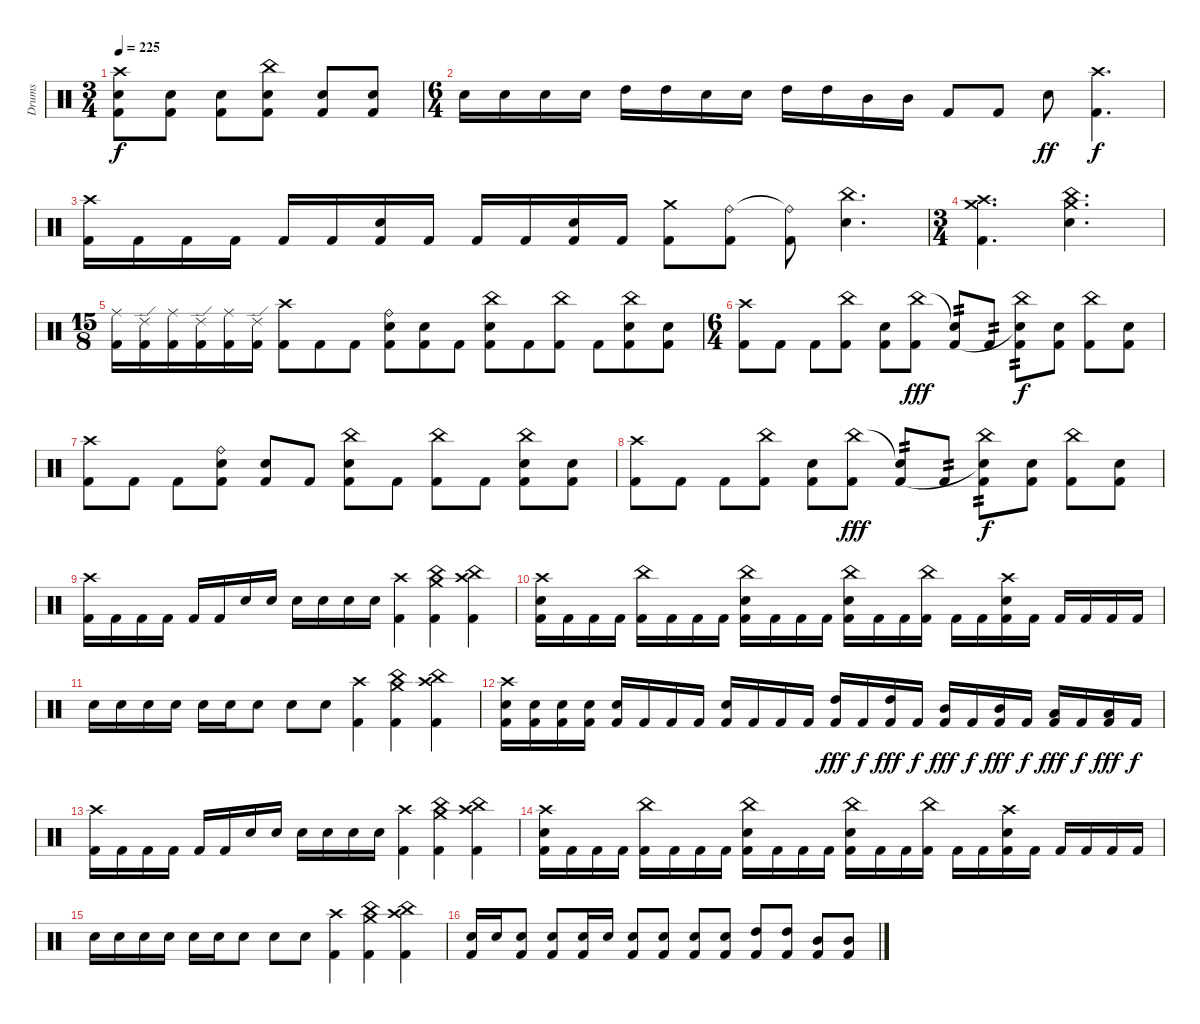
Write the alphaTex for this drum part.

\track ("Drums" "Drums") {instrument percussion}
\staff {score}
\articulation defaults
\ts (3 4)
\tempo 225
\clef neutral
\ks c
("Crash high (hit)" "Snare (hit) 2" "Kick (hit) 2").8{dy f} ("Snare (hit) 2" "Kick (hit) 2").8 ("Snare (hit) 2" "Kick (hit) 2").8 ("China (hit)" "Snare (hit) 2" "Kick (hit) 2").8 ("Snare (hit) 2" "Kick (hit) 2").8 ("Snare (hit) 2" "Kick (hit) 2").8 |
\ts (6 4)
"Snare (hit) 2".16 "Snare (hit) 2".16 "Snare (hit) 2".16 "Snare (hit) 2".16 "High Tom (hit)".16 "High Tom (hit)".16 "Snare (hit) 2".16 "Snare (hit) 2".16 "High Tom (hit)".16 "High Tom (hit)".16 "Mid Tom (hit)".16 "Mid Tom (hit)".16 "Kick (hit) 2".8 "Kick (hit) 2".8 "Snare (hit) 2".8{dy ff} ("Crash high (hit)" "Kick (hit) 2").4{d dy f} |
("Crash high (hit)" "Kick (hit) 2").16 "Kick (hit) 2".16 "Kick (hit) 2".16 "Kick (hit) 2".16 "Kick (hit) 2".16 "Kick (hit) 2".16 ("Snare (hit) 2" "Kick (hit) 2").16 "Kick (hit) 2".16 "Kick (hit) 2".16 "Kick (hit) 2".16 ("Snare (hit) 2" "Kick (hit) 2").16 "Kick (hit) 2".16 ("Crash medium (hit)" "Kick (hit) 2").8 ("Ride (bell)" "Kick (hit) 2").8 ("Ride (bell)"{t} "Kick (hit) 2").8 ("China (hit)" "Snare (hit) 2").4{d} |
\ts (3 4)
("Crash medium (hit)" "Crash high (hit)" "Kick (hit) 2").4{d} ("China (hit)" "Crash medium (hit)" "Snare (hit) 2").4{d} |
\ts (15 8)
("Ride (middle)" "Kick (hit) 2").16 ("Ride (edge) 2" "Kick (hit) 2").16 ("Ride (middle)" "Kick (hit) 2").16 ("Ride (edge) 2" "Kick (hit) 2").16 ("Ride (middle)" "Kick (hit) 2").16 ("Ride (edge) 2" "Kick (hit) 2").16 ("Crash high (hit)" "Kick (hit) 2").8 "Kick (hit) 2".8 "Kick (hit) 2".8 ("Ride (bell)" "Snare (hit)" "Kick (hit) 2").8 ("Snare (hit) 2" "Kick (hit) 2").8 "Kick (hit) 2".8 ("China (hit)" "Snare (hit) 2" "Kick (hit) 2").8 "Kick (hit) 2".8 ("China (hit)" "Kick (hit) 2").8 "Kick (hit) 2".8 ("China (hit)" "Snare (hit) 2" "Kick (hit) 2").8 ("Snare (hit) 2" "Kick (hit) 2").8 |
\ts (6 4)
("Crash high (hit)" "Kick (hit) 2").8 "Kick (hit) 2".8 "Kick (hit) 2".8 ("China (hit)" "Kick (hit) 2").8 ("Snare (hit) 2" "Kick (hit) 2").8 ("China (hit)" "Kick (hit) 2").8{dy fff} ("Snare (hit) 2"{t} "Kick (hit) 2").8{tp 2} "Kick (hit) 2".8{tp 2} ("China (hit)" "Snare (hit) 2"{t} "Kick (hit) 2").8{tp 2 dy f} ("Snare (hit) 2" "Kick (hit) 2").8 ("China (hit)" "Kick (hit) 2").8 ("Snare (hit) 2" "Kick (hit) 2").8 |
("Crash high (hit)" "Kick (hit) 2").8 "Kick (hit) 2".8 "Kick (hit) 2".8 ("Ride (bell)" "Snare (hit)" "Kick (hit) 2").8 ("Snare (hit) 2" "Kick (hit) 2").8 "Kick (hit) 2".8 ("China (hit)" "Snare (hit) 2" "Kick (hit) 2").8 "Kick (hit) 2".8 ("China (hit)" "Kick (hit) 2").8 "Kick (hit) 2".8 ("China (hit)" "Snare (hit) 2" "Kick (hit) 2").8 ("Snare (hit) 2" "Kick (hit) 2").8 |
("Crash high (hit)" "Kick (hit) 2").8 "Kick (hit) 2".8 "Kick (hit) 2".8 ("China (hit)" "Kick (hit) 2").8 ("Snare (hit) 2" "Kick (hit) 2").8 ("China (hit)" "Kick (hit) 2").8{dy fff} ("Snare (hit) 2"{t} "Kick (hit) 2").8{tp 2} "Kick (hit) 2".8{tp 2} ("China (hit)" "Snare (hit) 2"{t} "Kick (hit) 2").8{tp 2 dy f} ("Snare (hit) 2" "Kick (hit) 2").8 ("China (hit)" "Kick (hit) 2").8 ("Snare (hit) 2" "Kick (hit) 2").8 |
("Crash high (hit)" "Kick (hit) 2").16 "Kick (hit) 2".16 "Kick (hit) 2".16 "Kick (hit) 2".16 "Kick (hit) 2".16 "Kick (hit) 2".16 "Snare (hit) 2".16 "Snare (hit) 2".16 "Snare (hit) 2".16 "Snare (hit) 2".16 "Snare (hit) 2".16 "Snare (hit) 2".16 ("Crash high (hit)" "Kick (hit) 2").4 ("Crash medium (hit)" "China (hit)" "Kick (hit) 2").4 ("China (hit)" "Crash high (hit)" "Kick (hit) 2").4 |
("Crash high (hit)" "Snare (hit) 2" "Kick (hit) 2").16 "Kick (hit) 2".16 "Kick (hit) 2".16 "Kick (hit) 2".16 ("China (hit)" "Kick (hit) 2").16 "Kick (hit) 2".16 "Kick (hit) 2".16 "Kick (hit) 2".16 ("China (hit)" "Snare (hit) 2" "Kick (hit) 2").16 "Kick (hit) 2".16 "Kick (hit) 2".16 "Kick (hit) 2".16 ("China (hit)" "Snare (hit) 2" "Kick (hit) 2").16 "Kick (hit) 2".16 "Kick (hit) 2".16 ("China (hit)" "Kick (hit) 2").16 "Kick (hit) 2".16 "Kick (hit) 2".16 ("Crash high (hit)" "Snare (hit) 2" "Kick (hit) 2").16 "Kick (hit) 2".16 "Kick (hit) 2".16 "Kick (hit) 2".16 "Kick (hit) 2".16 "Kick (hit) 2".16 |
"Snare (hit) 2".16 "Snare (hit) 2".16 "Snare (hit) 2".16 "Snare (hit) 2".16 "Snare (hit) 2".16 "Snare (hit) 2".16 "Snare (hit) 2".8 "Snare (hit) 2".8 "Snare (hit) 2".8 ("Crash high (hit)" "Kick (hit) 2").4 ("Crash medium (hit)" "China (hit)" "Kick (hit) 2").4 ("China (hit)" "Crash high (hit)" "Kick (hit) 2").4 |
("Crash high (hit)" "Snare (hit) 2" "Kick (hit) 2").16 ("Snare (hit) 2" "Kick (hit) 2").16 ("Snare (hit) 2" "Kick (hit) 2").16 ("Snare (hit) 2" "Kick (hit) 2").16 ("Snare (hit) 2" "Kick (hit) 2").16 "Kick (hit) 2".16 "Kick (hit) 2".16 "Kick (hit) 2".16 ("Snare (hit) 2" "Kick (hit) 2").16 "Kick (hit) 2".16 "Kick (hit) 2".16 "Kick (hit) 2".16 ("High Tom (hit)" "Kick (hit) 2").16{dy fff} "Kick (hit) 2".16{dy f} ("High Tom (hit)" "Kick (hit) 2").16{dy fff} "Kick (hit) 2".16{dy f} ("Mid Tom (hit)" "Kick (hit) 2").16{dy fff} "Kick (hit) 2".16{dy f} ("Mid Tom (hit)" "Kick (hit) 2").16{dy fff} "Kick (hit) 2".16{dy f} ("Low Tom (hit)" "Kick (hit) 2").16{dy fff} "Kick (hit) 2".16{dy f} ("Low Tom (hit)" "Kick (hit) 2").16{dy fff} "Kick (hit) 2".16{dy f} |
("Crash high (hit)" "Kick (hit) 2").16 "Kick (hit) 2".16 "Kick (hit) 2".16 "Kick (hit) 2".16 "Kick (hit) 2".16 "Kick (hit) 2".16 "Snare (hit) 2".16 "Snare (hit) 2".16 "Snare (hit) 2".16 "Snare (hit) 2".16 "Snare (hit) 2".16 "Snare (hit) 2".16 ("Crash high (hit)" "Kick (hit) 2").4 ("Crash medium (hit)" "China (hit)" "Kick (hit) 2").4 ("China (hit)" "Crash high (hit)" "Kick (hit) 2").4 |
("Crash high (hit)" "Snare (hit) 2" "Kick (hit) 2").16 "Kick (hit) 2".16 "Kick (hit) 2".16 "Kick (hit) 2".16 ("China (hit)" "Kick (hit) 2").16 "Kick (hit) 2".16 "Kick (hit) 2".16 "Kick (hit) 2".16 ("China (hit)" "Snare (hit) 2" "Kick (hit) 2").16 "Kick (hit) 2".16 "Kick (hit) 2".16 "Kick (hit) 2".16 ("China (hit)" "Snare (hit) 2" "Kick (hit) 2").16 "Kick (hit) 2".16 "Kick (hit) 2".16 ("China (hit)" "Kick (hit) 2").16 "Kick (hit) 2".16 "Kick (hit) 2".16 ("Crash high (hit)" "Snare (hit) 2" "Kick (hit) 2").16 "Kick (hit) 2".16 "Kick (hit) 2".16 "Kick (hit) 2".16 "Kick (hit) 2".16 "Kick (hit) 2".16 |
"Snare (hit) 2".16 "Snare (hit) 2".16 "Snare (hit) 2".16 "Snare (hit) 2".16 "Snare (hit) 2".16 "Snare (hit) 2".16 "Snare (hit) 2".8 "Snare (hit) 2".8 "Snare (hit) 2".8 ("Crash high (hit)" "Kick (hit) 2").4 ("Crash medium (hit)" "China (hit)" "Kick (hit) 2").4 ("China (hit)" "Crash high (hit)" "Kick (hit) 2").4 |
("Snare (hit) 2" "Kick (hit) 2").16 "Snare (hit) 2".16 ("Snare (hit) 2" "Kick (hit) 2").8 ("Snare (hit) 2" "Kick (hit) 2").8 ("Snare (hit) 2" "Kick (hit) 2").16 "Snare (hit) 2".16 ("Snare (hit) 2" "Kick (hit) 2").8 ("Snare (hit) 2" "Kick (hit) 2").8 ("Snare (hit) 2" "Kick (hit) 2").8 ("Snare (hit) 2" "Kick (hit) 2").8 ("High Tom (hit)" "Kick (hit) 2").8 ("High Tom (hit)" "Kick (hit) 2").8 ("Mid Tom (hit)" "Kick (hit) 2").8 ("Mid Tom (hit)" "Kick (hit) 2").8
